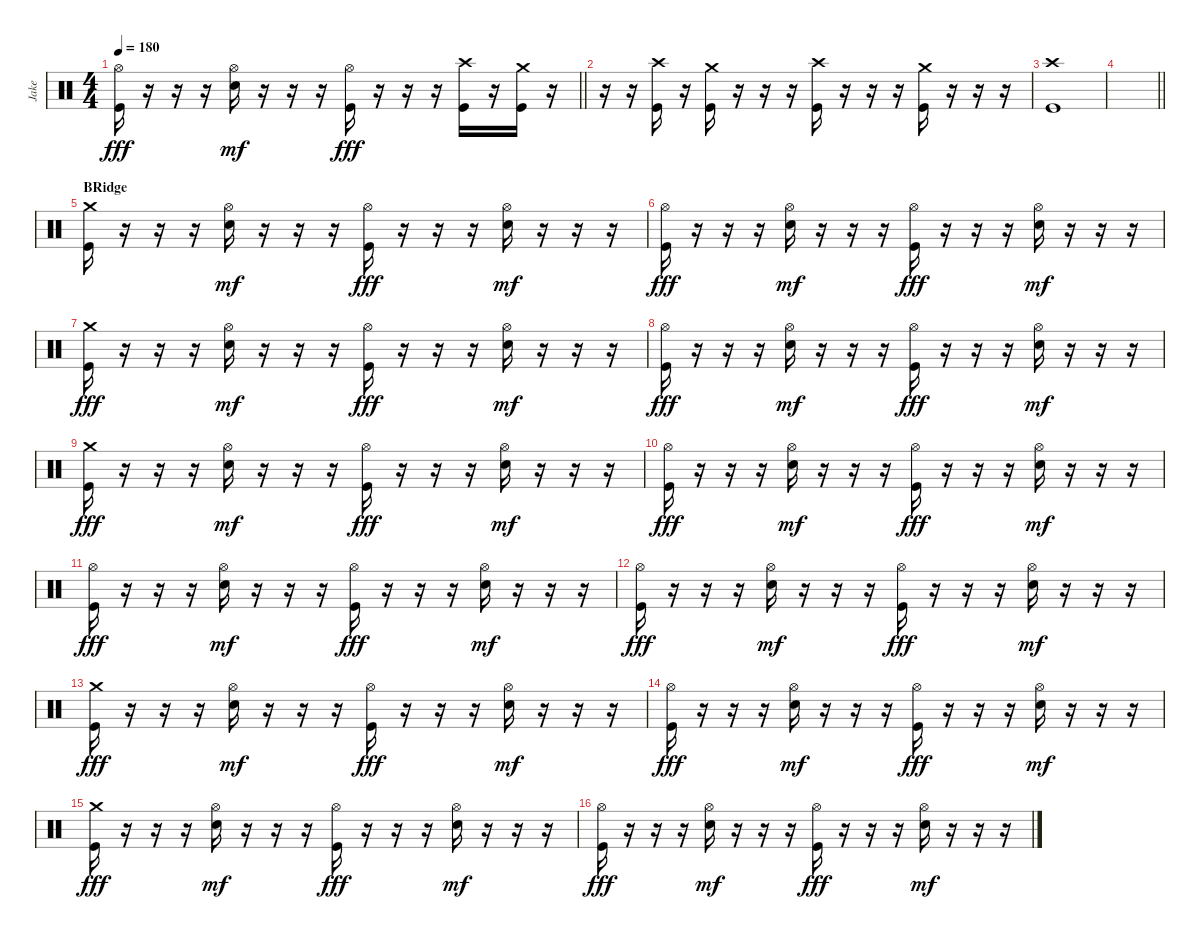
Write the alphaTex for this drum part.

\track ("Jake" "Jake") {instrument percussion}
\staff {score}
\articulation defaults
\ts (4 4)
\tempo 180
\clef neutral
\barLineRight lightlight
\ks c
("Hi-Hat (open)" "Kick (hit)").16{dy fff} r.16 r.16 r.16 ("Hi-Hat (open)" "Electric Snare (hit)").16{dy mf} r.16 r.16 r.16 ("Hi-Hat (open)" "Kick (hit)").16{dy fff} r.16 r.16 r.16 ("Crash high (hit)" "Kick (hit)").16 r.16 ("Crash medium (hit)" "Kick (hit)").16 r.16 |
r.16 r.16 ("Crash high (hit)" "Kick (hit)").16 r.16 ("Crash medium (hit)" "Kick (hit)").16 r.16 r.16 r.16 ("Crash high (hit)" "Kick (hit)").16 r.16 r.16 r.16 ("Crash medium (hit)" "Kick (hit)").16 r.16 r.16 r.16 |
("Crash high (hit)" "Kick (hit)").1 |
\barLineRight lightlight
|
\section ("" "BRidge")
("Crash medium (hit)" "Kick (hit)").16 r.16 r.16 r.16 ("Hi-Hat (open)" "Electric Snare (hit)").16{dy mf} r.16 r.16 r.16 ("Hi-Hat (open)" "Kick (hit)").16{dy fff} r.16 r.16 r.16 ("Hi-Hat (open)" "Electric Snare (hit)").16{dy mf} r.16 r.16 r.16 |
("Hi-Hat (open)" "Kick (hit)").16{dy fff} r.16 r.16 r.16 ("Hi-Hat (open)" "Electric Snare (hit)").16{dy mf} r.16 r.16 r.16 ("Hi-Hat (open)" "Kick (hit)").16{dy fff} r.16 r.16 r.16 ("Hi-Hat (open)" "Electric Snare (hit)").16{dy mf} r.16 r.16 r.16 |
("Crash medium (hit)" "Kick (hit)").16{dy fff} r.16 r.16 r.16 ("Hi-Hat (open)" "Electric Snare (hit)").16{dy mf} r.16 r.16 r.16 ("Hi-Hat (open)" "Kick (hit)").16{dy fff} r.16 r.16 r.16 ("Hi-Hat (open)" "Electric Snare (hit)").16{dy mf} r.16 r.16 r.16 |
("Hi-Hat (open)" "Kick (hit)").16{dy fff} r.16 r.16 r.16 ("Hi-Hat (open)" "Electric Snare (hit)").16{dy mf} r.16 r.16 r.16 ("Hi-Hat (open)" "Kick (hit)").16{dy fff} r.16 r.16 r.16 ("Hi-Hat (open)" "Electric Snare (hit)").16{dy mf} r.16 r.16 r.16 |
("Crash medium (hit)" "Kick (hit)").16{dy fff} r.16 r.16 r.16 ("Hi-Hat (open)" "Electric Snare (hit)").16{dy mf} r.16 r.16 r.16 ("Hi-Hat (open)" "Kick (hit)").16{dy fff} r.16 r.16 r.16 ("Hi-Hat (open)" "Electric Snare (hit)").16{dy mf} r.16 r.16 r.16 |
("Hi-Hat (open)" "Kick (hit)").16{dy fff} r.16 r.16 r.16 ("Hi-Hat (open)" "Electric Snare (hit)").16{dy mf} r.16 r.16 r.16 ("Hi-Hat (open)" "Kick (hit)").16{dy fff} r.16 r.16 r.16 ("Hi-Hat (open)" "Electric Snare (hit)").16{dy mf} r.16 r.16 r.16 |
("Hi-Hat (open)" "Kick (hit)").16{dy fff} r.16 r.16 r.16 ("Hi-Hat (open)" "Electric Snare (hit)").16{dy mf} r.16 r.16 r.16 ("Hi-Hat (open)" "Kick (hit)").16{dy fff} r.16 r.16 r.16 ("Hi-Hat (open)" "Electric Snare (hit)").16{dy mf} r.16 r.16 r.16 |
("Hi-Hat (open)" "Kick (hit)").16{dy fff} r.16 r.16 r.16 ("Hi-Hat (open)" "Electric Snare (hit)").16{dy mf} r.16 r.16 r.16 ("Hi-Hat (open)" "Kick (hit)").16{dy fff} r.16 r.16 r.16 ("Hi-Hat (open)" "Electric Snare (hit)").16{dy mf} r.16 r.16 r.16 |
("Crash medium (hit)" "Kick (hit)").16{dy fff} r.16 r.16 r.16 ("Hi-Hat (open)" "Electric Snare (hit)").16{dy mf} r.16 r.16 r.16 ("Hi-Hat (open)" "Kick (hit)").16{dy fff} r.16 r.16 r.16 ("Hi-Hat (open)" "Electric Snare (hit)").16{dy mf} r.16 r.16 r.16 |
("Hi-Hat (open)" "Kick (hit)").16{dy fff} r.16 r.16 r.16 ("Hi-Hat (open)" "Electric Snare (hit)").16{dy mf} r.16 r.16 r.16 ("Hi-Hat (open)" "Kick (hit)").16{dy fff} r.16 r.16 r.16 ("Hi-Hat (open)" "Electric Snare (hit)").16{dy mf} r.16 r.16 r.16 |
("Crash medium (hit)" "Kick (hit)").16{dy fff} r.16 r.16 r.16 ("Hi-Hat (open)" "Electric Snare (hit)").16{dy mf} r.16 r.16 r.16 ("Hi-Hat (open)" "Kick (hit)").16{dy fff} r.16 r.16 r.16 ("Hi-Hat (open)" "Electric Snare (hit)").16{dy mf} r.16 r.16 r.16 |
("Hi-Hat (open)" "Kick (hit)").16{dy fff} r.16 r.16 r.16 ("Hi-Hat (open)" "Electric Snare (hit)").16{dy mf} r.16 r.16 r.16 ("Hi-Hat (open)" "Kick (hit)").16{dy fff} r.16 r.16 r.16 ("Hi-Hat (open)" "Electric Snare (hit)").16{dy mf} r.16 r.16 r.16
